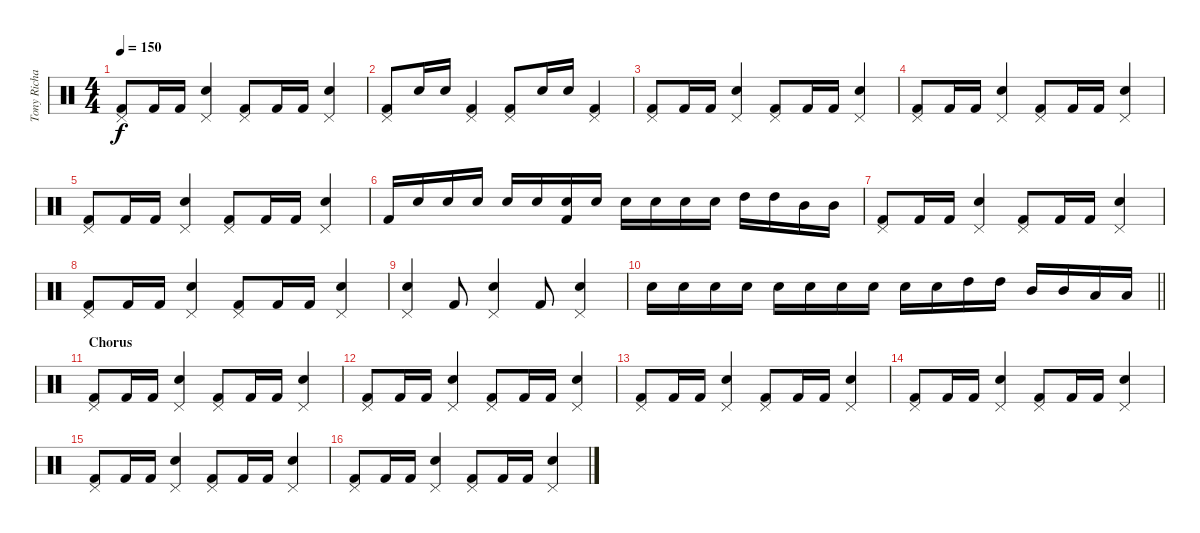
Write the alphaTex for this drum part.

\track ("Tony Richards (drums)" "Tony Richa") {instrument percussion}
\staff {score}
\articulation defaults
\ts (4 4)
\tempo 150
\clef neutral
\ks c
("Pedal Hi-Hat (hit)" "Kick (hit) 2").8{dy f} "Kick (hit) 2".16 "Kick (hit) 2".16 ("Pedal Hi-Hat (hit)" "Snare (hit) 2").4 ("Pedal Hi-Hat (hit)" "Kick (hit) 2").8 "Kick (hit) 2".16 "Kick (hit) 2".16 ("Pedal Hi-Hat (hit)" "Snare (hit) 2").4 |
("Pedal Hi-Hat (hit)" "Kick (hit) 2").8 "Snare (hit) 2".16 "Snare (hit) 2".16 ("Pedal Hi-Hat (hit)" "Kick (hit) 2").4 ("Pedal Hi-Hat (hit)" "Kick (hit) 2").8 "Snare (hit) 2".16 "Snare (hit) 2".16 ("Pedal Hi-Hat (hit)" "Kick (hit) 2").4 |
("Pedal Hi-Hat (hit)" "Kick (hit) 2").8 "Kick (hit) 2".16 "Kick (hit) 2".16 ("Pedal Hi-Hat (hit)" "Snare (hit) 2").4 ("Pedal Hi-Hat (hit)" "Kick (hit) 2").8 "Kick (hit) 2".16 "Kick (hit) 2".16 ("Pedal Hi-Hat (hit)" "Snare (hit) 2").4 |
("Pedal Hi-Hat (hit)" "Kick (hit) 2").8 "Kick (hit) 2".16 "Kick (hit) 2".16 ("Pedal Hi-Hat (hit)" "Snare (hit) 2").4 ("Pedal Hi-Hat (hit)" "Kick (hit) 2").8 "Kick (hit) 2".16 "Kick (hit) 2".16 ("Pedal Hi-Hat (hit)" "Snare (hit) 2").4 |
("Pedal Hi-Hat (hit)" "Kick (hit) 2").8 "Kick (hit) 2".16 "Kick (hit) 2".16 ("Pedal Hi-Hat (hit)" "Snare (hit) 2").4 ("Pedal Hi-Hat (hit)" "Kick (hit) 2").8 "Kick (hit) 2".16 "Kick (hit) 2".16 ("Pedal Hi-Hat (hit)" "Snare (hit) 2").4 |
"Kick (hit) 2".16 "Snare (hit) 2".16 "Snare (hit) 2".16 "Snare (hit) 2".16 "Snare (hit) 2".16 "Snare (hit) 2".16 ("Snare (hit) 2" "Kick (hit) 2").16 "Snare (hit) 2".16 "Snare (hit) 2".16 "Snare (hit) 2".16 "Snare (hit) 2".16 "Snare (hit) 2".16 "High Tom (hit)".16 "High Tom (hit)".16 "Mid Tom (hit)".16 "Mid Tom (hit)".16 |
("Pedal Hi-Hat (hit)" "Kick (hit) 2").8 "Kick (hit) 2".16 "Kick (hit) 2".16 ("Pedal Hi-Hat (hit)" "Snare (hit) 2").4 ("Pedal Hi-Hat (hit)" "Kick (hit) 2").8 "Kick (hit) 2".16 "Kick (hit) 2".16 ("Pedal Hi-Hat (hit)" "Snare (hit) 2").4 |
("Pedal Hi-Hat (hit)" "Kick (hit) 2").8 "Kick (hit) 2".16 "Kick (hit) 2".16 ("Pedal Hi-Hat (hit)" "Snare (hit) 2").4 ("Pedal Hi-Hat (hit)" "Kick (hit) 2").8 "Kick (hit) 2".16 "Kick (hit) 2".16 ("Pedal Hi-Hat (hit)" "Snare (hit) 2").4 |
("Pedal Hi-Hat (hit)" "Snare (hit) 2").4 "Kick (hit) 2".8 ("Pedal Hi-Hat (hit)" "Snare (hit) 2").4 "Kick (hit) 2".8 ("Pedal Hi-Hat (hit)" "Snare (hit) 2").4 |
\barLineRight lightlight "Snare (hit) 2".16 "Snare (hit) 2".16 "Snare (hit) 2".16 "Snare (hit) 2".16 "Snare (hit) 2".16 "Snare (hit) 2".16 "Snare (hit) 2".16 "Snare (hit) 2".16 "Snare (hit) 2".16 "Snare (hit) 2".16 "High Tom (hit)".16 "High Tom (hit)".16 "Mid Tom (hit)".16 "Mid Tom (hit)".16 "Low Tom (hit)".16 "Low Tom (hit)".16
|
\section ("" "Chorus")
("Pedal Hi-Hat (hit)" "Kick (hit) 2").8 "Kick (hit) 2".16 "Kick (hit) 2".16 ("Pedal Hi-Hat (hit)" "Snare (hit) 2").4 ("Pedal Hi-Hat (hit)" "Kick (hit) 2").8 "Kick (hit) 2".16 "Kick (hit) 2".16 ("Pedal Hi-Hat (hit)" "Snare (hit) 2").4 |
("Pedal Hi-Hat (hit)" "Kick (hit) 2").8 "Kick (hit) 2".16 "Kick (hit) 2".16 ("Pedal Hi-Hat (hit)" "Snare (hit) 2").4 ("Pedal Hi-Hat (hit)" "Kick (hit) 2").8 "Kick (hit) 2".16 "Kick (hit) 2".16 ("Pedal Hi-Hat (hit)" "Snare (hit) 2").4 |
("Pedal Hi-Hat (hit)" "Kick (hit) 2").8 "Kick (hit) 2".16 "Kick (hit) 2".16 ("Pedal Hi-Hat (hit)" "Snare (hit) 2").4 ("Pedal Hi-Hat (hit)" "Kick (hit) 2").8 "Kick (hit) 2".16 "Kick (hit) 2".16 ("Pedal Hi-Hat (hit)" "Snare (hit) 2").4 |
("Pedal Hi-Hat (hit)" "Kick (hit) 2").8 "Kick (hit) 2".16 "Kick (hit) 2".16 ("Pedal Hi-Hat (hit)" "Snare (hit) 2").4 ("Pedal Hi-Hat (hit)" "Kick (hit) 2").8 "Kick (hit) 2".16 "Kick (hit) 2".16 ("Pedal Hi-Hat (hit)" "Snare (hit) 2").4 |
("Pedal Hi-Hat (hit)" "Kick (hit) 2").8 "Kick (hit) 2".16 "Kick (hit) 2".16 ("Pedal Hi-Hat (hit)" "Snare (hit) 2").4 ("Pedal Hi-Hat (hit)" "Kick (hit) 2").8 "Kick (hit) 2".16 "Kick (hit) 2".16 ("Pedal Hi-Hat (hit)" "Snare (hit) 2").4 |
("Pedal Hi-Hat (hit)" "Kick (hit) 2").8 "Kick (hit) 2".16 "Kick (hit) 2".16 ("Pedal Hi-Hat (hit)" "Snare (hit) 2").4 ("Pedal Hi-Hat (hit)" "Kick (hit) 2").8 "Kick (hit) 2".16 "Kick (hit) 2".16 ("Pedal Hi-Hat (hit)" "Snare (hit) 2").4
